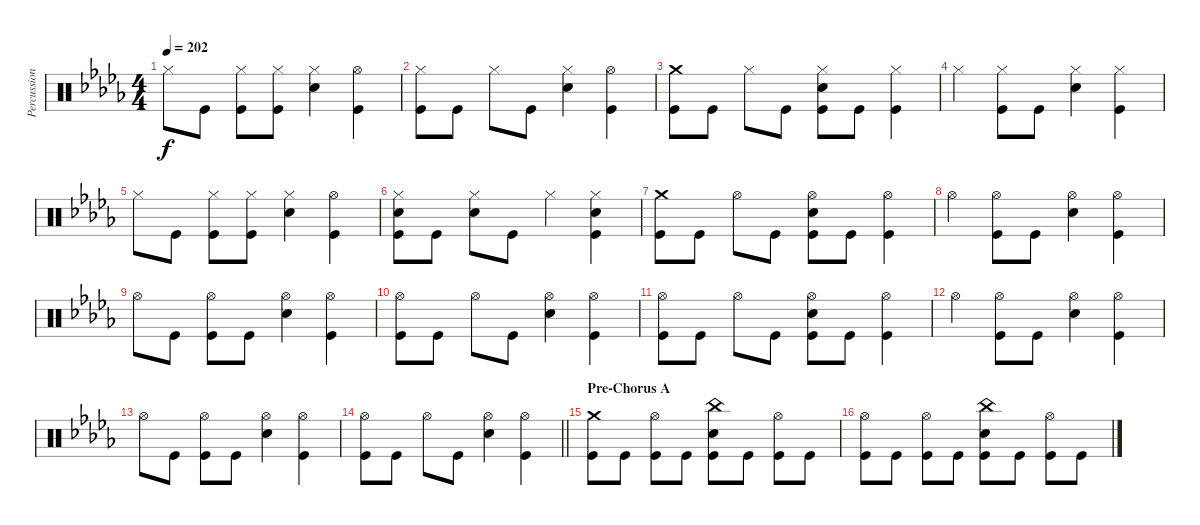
\track ("Percussion" "Percussion") {instrument percussion}
\staff {score}
\articulation defaults
\ts (4 4)
\tempo 202
\clef neutral
\ks db "Hi-Hat (closed)".8{dy f} "Kick (hit)".8
("Hi-Hat (closed)" "Kick (hit)").8 ("Hi-Hat (closed)" "Kick (hit)").8 ("Hi-Hat (closed)" "Electric Snare (hit)").4 ("Hi-Hat (open)" "Kick (hit)").4 |
("Hi-Hat (closed)" "Kick (hit)").8 "Kick (hit)".8 "Hi-Hat (closed)".8 "Kick (hit)".8 ("Hi-Hat (closed)" "Electric Snare (hit)").4 ("Hi-Hat (open)" "Kick (hit)").4 |
("Crash medium (hit)" "Kick (hit)").8 "Kick (hit)".8 "Hi-Hat (closed)".8 "Kick (hit)".8 ("Hi-Hat (closed)" "Electric Snare (hit)" "Kick (hit)").8 "Kick (hit)".8 ("Hi-Hat (closed)" "Kick (hit)").4 |
"Hi-Hat (closed)".4 ("Hi-Hat (closed)" "Kick (hit)").8 "Kick (hit)".8 ("Hi-Hat (closed)" "Electric Snare (hit)").4 ("Hi-Hat (closed)" "Kick (hit)").4 |
"Hi-Hat (closed)".8 "Kick (hit)".8 ("Hi-Hat (closed)" "Kick (hit)").8 ("Hi-Hat (closed)" "Kick (hit)").8 ("Hi-Hat (closed)" "Electric Snare (hit)").4 ("Hi-Hat (open)" "Kick (hit)").4 |
("Hi-Hat (closed)" "Electric Snare (hit)" "Kick (hit)").8 "Kick (hit)".8 ("Hi-Hat (closed)" "Electric Snare (hit)").8 "Kick (hit)".8 "Hi-Hat (closed)".4 ("Hi-Hat (closed)" "Electric Snare (hit)" "Kick (hit)").4 |
("Crash medium (hit)" "Kick (hit)").8 "Kick (hit)".8 "Hi-Hat (open)".8 "Kick (hit)".8 ("Hi-Hat (open)" "Electric Snare (hit)" "Kick (hit)").8 "Kick (hit)".8 ("Hi-Hat (open)" "Kick (hit)").4 |
"Hi-Hat (open)".4 ("Hi-Hat (open)" "Kick (hit)").8 "Kick (hit)".8 ("Hi-Hat (open)" "Electric Snare (hit)").4 ("Hi-Hat (open)" "Kick (hit)").4 |
"Hi-Hat (open)".8 "Kick (hit)".8 ("Hi-Hat (open)" "Kick (hit)").8 "Kick (hit)".8 ("Hi-Hat (open)" "Electric Snare (hit)").4 ("Hi-Hat (open)" "Kick (hit)").4 |
("Hi-Hat (open)" "Kick (hit)").8 "Kick (hit)".8 "Hi-Hat (open)".8 "Kick (hit)".8 ("Hi-Hat (open)" "Electric Snare (hit)").4 ("Hi-Hat (open)" "Kick (hit)").4 |
("Hi-Hat (open)" "Kick (hit)").8 "Kick (hit)".8 "Hi-Hat (open)".8 "Kick (hit)".8 ("Hi-Hat (open)" "Electric Snare (hit)" "Kick (hit)").8 "Kick (hit)".8 ("Hi-Hat (open)" "Kick (hit)").4 |
"Hi-Hat (open)".4 ("Hi-Hat (open)" "Kick (hit)").8 "Kick (hit)".8 ("Hi-Hat (open)" "Electric Snare (hit)").4 ("Hi-Hat (open)" "Kick (hit)").4 |
"Hi-Hat (open)".8 "Kick (hit)".8 ("Hi-Hat (open)" "Kick (hit)").8 "Kick (hit)".8 ("Hi-Hat (open)" "Electric Snare (hit)").4 ("Hi-Hat (open)" "Kick (hit)").4 |
\barLineRight lightlight
("Hi-Hat (open)" "Kick (hit)").8 "Kick (hit)".8 "Hi-Hat (open)".8 "Kick (hit)".8 ("Hi-Hat (open)" "Electric Snare (hit)").4 ("Hi-Hat (open)" "Kick (hit)").4 |
\section ("" "Pre-Chorus A")
("Crash medium (hit)" "Kick (hit)").8 "Kick (hit)".8 ("Hi-Hat (open)" "Kick (hit)").8 "Kick (hit)".8 ("China (hit)" "Electric Snare (hit)" "Kick (hit)").8 "Kick (hit)".8 ("Hi-Hat (open)" "Kick (hit)").8 "Kick (hit)".8 |
("Hi-Hat (open)" "Kick (hit)").8 "Kick (hit)".8 ("Hi-Hat (open)" "Kick (hit)").8 "Kick (hit)".8 ("China (hit)" "Electric Snare (hit)" "Kick (hit)").8 "Kick (hit)".8 ("Hi-Hat (open)" "Kick (hit)").8 "Kick (hit)".8
